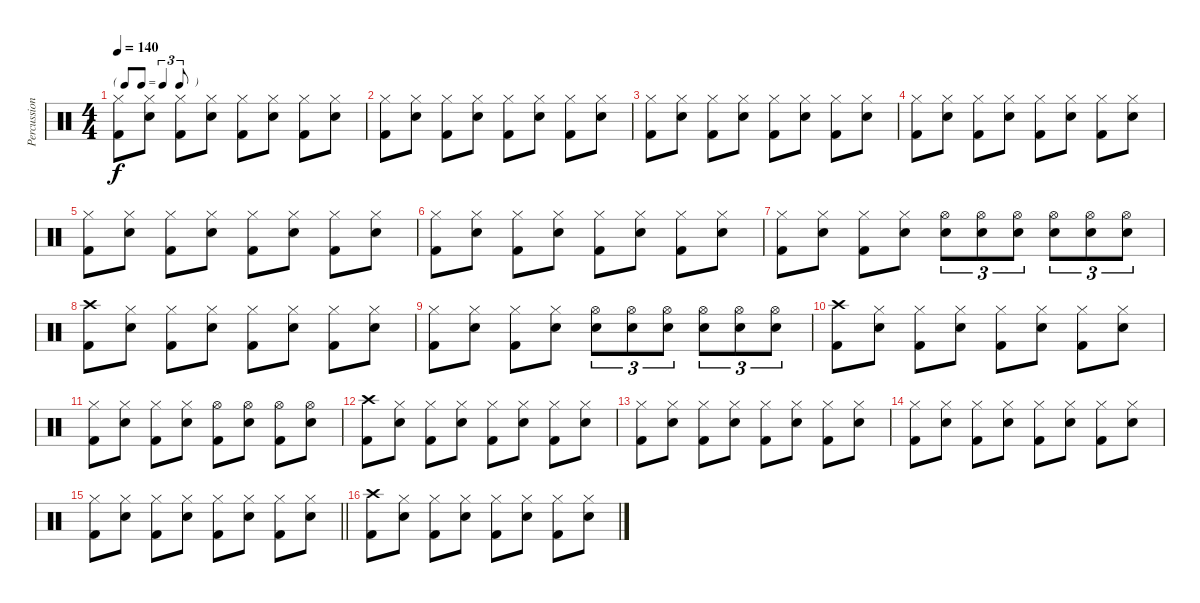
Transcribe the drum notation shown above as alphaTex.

\track ("Percussion" "Percussion") {instrument percussion}
\staff {score}
\articulation defaults
\ts (4 4)
\tf triplet8th
\tempo 140
\clef neutral
\ks c
("Hi-Hat (closed)" "Kick (hit) 2").8{dy f} ("Hi-Hat (closed)" "Snare (hit) 2").8 ("Hi-Hat (closed)" "Kick (hit) 2").8 ("Hi-Hat (closed)" "Snare (hit) 2").8 ("Hi-Hat (closed)" "Kick (hit) 2").8 ("Hi-Hat (closed)" "Snare (hit) 2").8 ("Hi-Hat (closed)" "Kick (hit) 2").8 ("Hi-Hat (closed)" "Snare (hit) 2").8 |
("Hi-Hat (closed)" "Kick (hit) 2").8 ("Hi-Hat (closed)" "Snare (hit) 2").8 ("Hi-Hat (closed)" "Kick (hit) 2").8 ("Hi-Hat (closed)" "Snare (hit) 2").8 ("Hi-Hat (closed)" "Kick (hit) 2").8 ("Hi-Hat (closed)" "Snare (hit) 2").8 ("Hi-Hat (closed)" "Kick (hit) 2").8 ("Hi-Hat (closed)" "Snare (hit) 2").8 |
("Hi-Hat (closed)" "Kick (hit) 2").8 ("Hi-Hat (closed)" "Snare (hit) 2").8 ("Hi-Hat (closed)" "Kick (hit) 2").8 ("Hi-Hat (closed)" "Snare (hit) 2").8 ("Hi-Hat (closed)" "Kick (hit) 2").8 ("Hi-Hat (closed)" "Snare (hit) 2").8 ("Hi-Hat (closed)" "Kick (hit) 2").8 ("Hi-Hat (closed)" "Snare (hit) 2").8 |
("Hi-Hat (closed)" "Kick (hit) 2").8 ("Hi-Hat (closed)" "Snare (hit) 2").8 ("Hi-Hat (closed)" "Kick (hit) 2").8 ("Hi-Hat (closed)" "Snare (hit) 2").8 ("Hi-Hat (closed)" "Kick (hit) 2").8 ("Hi-Hat (closed)" "Snare (hit) 2").8 ("Hi-Hat (closed)" "Kick (hit) 2").8 ("Hi-Hat (closed)" "Snare (hit) 2").8 |
("Hi-Hat (closed)" "Kick (hit) 2").8 ("Hi-Hat (closed)" "Snare (hit) 2").8 ("Hi-Hat (closed)" "Kick (hit) 2").8 ("Hi-Hat (closed)" "Snare (hit) 2").8 ("Hi-Hat (closed)" "Kick (hit) 2").8 ("Hi-Hat (closed)" "Snare (hit) 2").8 ("Hi-Hat (closed)" "Kick (hit) 2").8 ("Hi-Hat (closed)" "Snare (hit) 2").8 |
("Hi-Hat (closed)" "Kick (hit) 2").8 ("Hi-Hat (closed)" "Snare (hit) 2").8 ("Hi-Hat (closed)" "Kick (hit) 2").8 ("Hi-Hat (closed)" "Snare (hit) 2").8 ("Hi-Hat (closed)" "Kick (hit) 2").8 ("Hi-Hat (closed)" "Snare (hit) 2").8 ("Hi-Hat (closed)" "Kick (hit) 2").8 ("Hi-Hat (closed)" "Snare (hit) 2").8 |
("Hi-Hat (closed)" "Kick (hit) 2").8 ("Hi-Hat (closed)" "Snare (hit) 2").8 ("Hi-Hat (closed)" "Kick (hit) 2").8 ("Hi-Hat (closed)" "Snare (hit) 2").8 ("Hi-Hat (open)" "Snare (hit) 2").8{tu (3 2)} ("Hi-Hat (open)" "Snare (hit) 2").8{tu (3 2)} ("Hi-Hat (open)" "Snare (hit) 2").8{tu (3 2)} ("Hi-Hat (open)" "Snare (hit) 2").8{tu (3 2)} ("Hi-Hat (open)" "Snare (hit) 2").8{tu (3 2)} ("Hi-Hat (open)" "Snare (hit) 2").8{tu (3 2)} |
("Crash high (hit)" "Kick (hit) 2").8 ("Hi-Hat (closed)" "Snare (hit) 2").8 ("Hi-Hat (closed)" "Kick (hit) 2").8 ("Hi-Hat (closed)" "Snare (hit) 2").8 ("Hi-Hat (closed)" "Kick (hit) 2").8 ("Hi-Hat (closed)" "Snare (hit) 2").8 ("Hi-Hat (closed)" "Kick (hit) 2").8 ("Hi-Hat (closed)" "Snare (hit) 2").8 |
("Hi-Hat (closed)" "Kick (hit) 2").8 ("Hi-Hat (closed)" "Snare (hit) 2").8 ("Hi-Hat (closed)" "Kick (hit) 2").8 ("Hi-Hat (closed)" "Snare (hit) 2").8 ("Hi-Hat (open)" "Snare (hit) 2").8{tu (3 2)} ("Hi-Hat (open)" "Snare (hit) 2").8{tu (3 2)} ("Hi-Hat (open)" "Snare (hit) 2").8{tu (3 2)} ("Hi-Hat (open)" "Snare (hit) 2").8{tu (3 2)} ("Hi-Hat (open)" "Snare (hit) 2").8{tu (3 2)} ("Hi-Hat (open)" "Snare (hit) 2").8{tu (3 2)} |
("Crash high (hit)" "Kick (hit) 2").8 ("Hi-Hat (closed)" "Snare (hit) 2").8 ("Hi-Hat (closed)" "Kick (hit) 2").8 ("Hi-Hat (closed)" "Snare (hit) 2").8 ("Hi-Hat (closed)" "Kick (hit) 2").8 ("Hi-Hat (closed)" "Snare (hit) 2").8 ("Hi-Hat (closed)" "Kick (hit) 2").8 ("Hi-Hat (closed)" "Snare (hit) 2").8 |
("Hi-Hat (closed)" "Kick (hit) 2").8 ("Hi-Hat (closed)" "Snare (hit) 2").8 ("Hi-Hat (closed)" "Kick (hit) 2").8 ("Hi-Hat (closed)" "Snare (hit) 2").8 ("Hi-Hat (open)" "Kick (hit) 2").8 ("Hi-Hat (open)" "Snare (hit) 2").8 ("Hi-Hat (open)" "Kick (hit) 2").8 ("Hi-Hat (open)" "Snare (hit) 2").8 |
("Crash high (hit)" "Kick (hit) 2").8 ("Hi-Hat (closed)" "Snare (hit) 2").8 ("Hi-Hat (closed)" "Kick (hit) 2").8 ("Hi-Hat (closed)" "Snare (hit) 2").8 ("Hi-Hat (closed)" "Kick (hit) 2").8 ("Hi-Hat (closed)" "Snare (hit) 2").8 ("Hi-Hat (closed)" "Kick (hit) 2").8 ("Hi-Hat (closed)" "Snare (hit) 2").8 |
("Hi-Hat (closed)" "Kick (hit) 2").8 ("Hi-Hat (closed)" "Snare (hit) 2").8 ("Hi-Hat (closed)" "Kick (hit) 2").8 ("Hi-Hat (closed)" "Snare (hit) 2").8 ("Hi-Hat (closed)" "Kick (hit) 2").8 ("Hi-Hat (closed)" "Snare (hit) 2").8 ("Hi-Hat (closed)" "Kick (hit) 2").8 ("Hi-Hat (closed)" "Snare (hit) 2").8 |
("Hi-Hat (closed)" "Kick (hit) 2").8 ("Hi-Hat (closed)" "Snare (hit) 2").8 ("Hi-Hat (closed)" "Kick (hit) 2").8 ("Hi-Hat (closed)" "Snare (hit) 2").8 ("Hi-Hat (closed)" "Kick (hit) 2").8 ("Hi-Hat (closed)" "Snare (hit) 2").8 ("Hi-Hat (closed)" "Kick (hit) 2").8 ("Hi-Hat (closed)" "Snare (hit) 2").8 |
\barLineRight lightlight
("Hi-Hat (closed)" "Kick (hit) 2").8 ("Hi-Hat (closed)" "Snare (hit) 2").8 ("Hi-Hat (closed)" "Kick (hit) 2").8 ("Hi-Hat (closed)" "Snare (hit) 2").8 ("Hi-Hat (closed)" "Kick (hit) 2").8 ("Hi-Hat (closed)" "Snare (hit) 2").8 ("Hi-Hat (closed)" "Kick (hit) 2").8 ("Hi-Hat (closed)" "Snare (hit) 2").8 |
("Crash high (hit)" "Kick (hit) 2").8 ("Hi-Hat (closed)" "Snare (hit) 2").8 ("Hi-Hat (closed)" "Kick (hit) 2").8 ("Hi-Hat (closed)" "Snare (hit) 2").8 ("Hi-Hat (closed)" "Kick (hit) 2").8 ("Hi-Hat (closed)" "Snare (hit) 2").8 ("Hi-Hat (closed)" "Kick (hit) 2").8 ("Hi-Hat (closed)" "Snare (hit) 2").8
